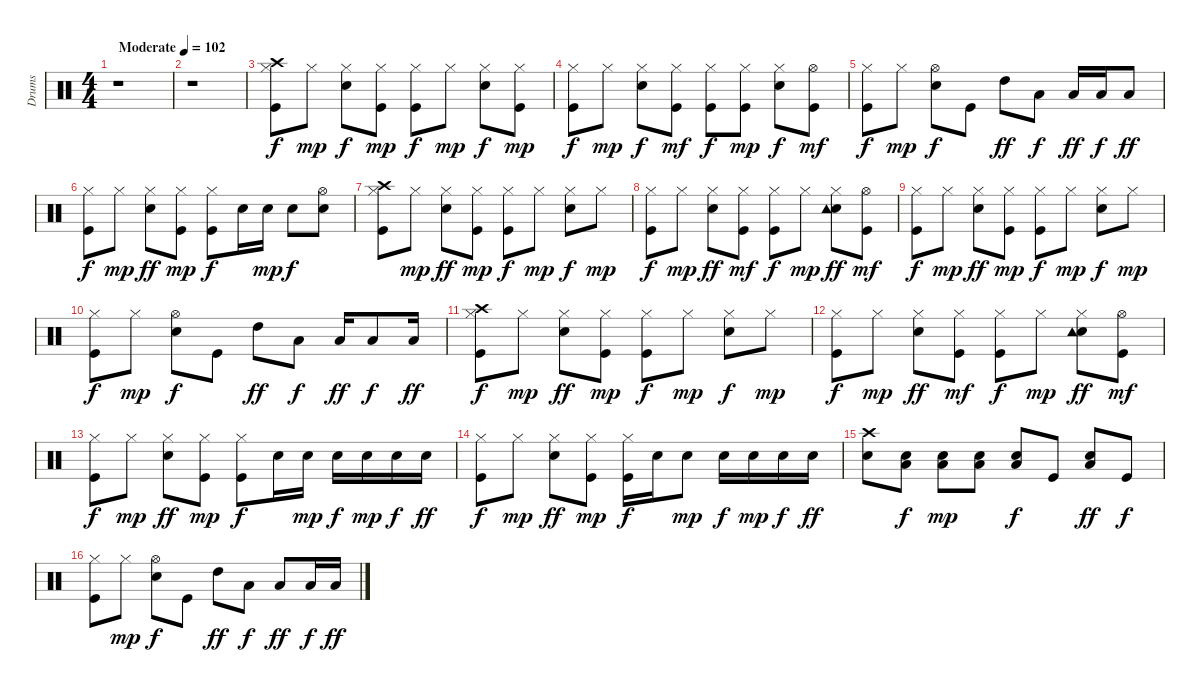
\track ("Drums" "Drums") {instrument percussion}
\staff {score}
\articulation defaults
\ts (4 4)
\tempo (102 "Moderate")
\clef neutral
\ks c
r.1{dy f} |
r.1 |
("Kick (hit)" "Hi-Hat (closed)" "Crash high (hit)").8 "Hi-Hat (closed)".8{dy mp} ("Snare (hit) 2" "Hi-Hat (closed)").8{dy f} ("Kick (hit)" "Hi-Hat (closed)").8{dy mp} ("Kick (hit)" "Hi-Hat (closed)").8{dy f} "Hi-Hat (closed)".8{dy mp} ("Snare (hit) 2" "Hi-Hat (closed)").8{dy f} ("Kick (hit)" "Hi-Hat (closed)").8{dy mp} |
("Kick (hit)" "Hi-Hat (closed)").8{dy f} "Hi-Hat (closed)".8{dy mp} ("Snare (hit) 2" "Hi-Hat (closed)").8{dy f} ("Kick (hit)" "Hi-Hat (closed)").8{dy mf} ("Kick (hit)" "Hi-Hat (closed)").8{dy f} ("Kick (hit)" "Hi-Hat (closed)").8{dy mp} ("Snare (hit) 2" "Hi-Hat (closed)").8{dy f} ("Kick (hit)" "Hi-Hat (open)").8{dy mf} |
("Kick (hit)" "Hi-Hat (closed)").8{dy f} "Hi-Hat (closed)".8{dy mp} ("Snare (hit) 2" "Hi-Hat (open)").8{dy f} "Kick (hit)".8 "High Tom (hit)".8{dy ff} "Low Tom (hit)".8{dy f} "Low Tom (hit)".16{dy ff} "Low Floor Tom (hit)".16{dy f} "Low Floor Tom (hit)".8{dy ff} |
("Kick (hit)" "Hi-Hat (closed)").8{dy f} "Hi-Hat (closed)".8{dy mp} ("Snare (hit) 2" "Hi-Hat (closed)").8{dy ff} ("Kick (hit)" "Hi-Hat (closed)").8{dy mp} ("Kick (hit)" "Hi-Hat (closed)").8{dy f} "Snare (hit) 2".16 "Snare (hit) 2".16{dy mp} "Snare (hit) 2".8{dy f} ("Snare (hit) 2" "Hi-Hat (open)").8 |
("Kick (hit)" "Hi-Hat (closed)" "Crash high (hit)").8 "Hi-Hat (closed)".8{dy mp} ("Snare (hit) 2" "Hi-Hat (closed)").8{dy ff} ("Kick (hit)" "Hi-Hat (closed)").8{dy mp} ("Kick (hit)" "Hi-Hat (closed)").8{dy f} "Hi-Hat (closed)".8{dy mp} ("Snare (hit) 2" "Hi-Hat (closed)").8{dy f} "Hi-Hat (closed)".8{dy mp} |
("Kick (hit)" "Hi-Hat (closed)").8{dy f} "Hi-Hat (closed)".8{dy mp} ("Snare (hit) 2" "Hi-Hat (closed)").8{dy ff} ("Kick (hit)" "Hi-Hat (closed)").8{dy mf} ("Kick (hit)" "Hi-Hat (closed)").8{dy f} "Hi-Hat (closed)".8{dy mp} ("Snare (hit) 2" "Hi-Hat (closed)" "Tambourine (hit)").8{dy ff} ("Kick (hit)" "Hi-Hat (open)").8{dy mf} |
("Kick (hit)" "Hi-Hat (closed)").8{dy f} "Hi-Hat (closed)".8{dy mp} ("Snare (hit) 2" "Hi-Hat (closed)").8{dy ff} ("Kick (hit)" "Hi-Hat (closed)").8{dy mp} ("Kick (hit)" "Hi-Hat (closed)").8{dy f} "Hi-Hat (closed)".8{dy mp} ("Snare (hit) 2" "Hi-Hat (closed)").8{dy f} "Hi-Hat (closed)".8{dy mp} |
("Kick (hit)" "Hi-Hat (closed)").8{dy f} "Hi-Hat (closed)".8{dy mp} ("Snare (hit) 2" "Hi-Hat (open)").8{dy f} "Kick (hit)".8 "High Tom (hit)".8{dy ff} "Low Tom (hit)".8{dy f} "Low Tom (hit)".16{dy ff} "Low Floor Tom (hit)".8{dy f} "Low Floor Tom (hit)".16{dy ff} |
("Kick (hit)" "Hi-Hat (closed)" "Crash high (hit)").8{dy f} "Hi-Hat (closed)".8{dy mp} ("Snare (hit) 2" "Hi-Hat (closed)").8{dy ff} ("Kick (hit)" "Hi-Hat (closed)").8{dy mp} ("Kick (hit)" "Hi-Hat (closed)").8{dy f} "Hi-Hat (closed)".8{dy mp} ("Snare (hit) 2" "Hi-Hat (closed)").8{dy f} "Hi-Hat (closed)".8{dy mp} |
("Kick (hit)" "Hi-Hat (closed)").8{dy f} "Hi-Hat (closed)".8{dy mp} ("Snare (hit) 2" "Hi-Hat (closed)").8{dy ff} ("Kick (hit)" "Hi-Hat (closed)").8{dy mf} ("Kick (hit)" "Hi-Hat (closed)").8{dy f} "Hi-Hat (closed)".8{dy mp} ("Snare (hit) 2" "Hi-Hat (closed)" "Tambourine (hit)").8{dy ff} ("Kick (hit)" "Hi-Hat (open)").8{dy mf} |
("Kick (hit)" "Hi-Hat (closed)").8{dy f} "Hi-Hat (closed)".8{dy mp} ("Snare (hit) 2" "Hi-Hat (closed)").8{dy ff} ("Kick (hit)" "Hi-Hat (closed)").8{dy mp} ("Kick (hit)" "Hi-Hat (closed)").8{dy f} "Snare (hit) 2".16 "Snare (hit) 2".16{dy mp} "Snare (hit) 2".16{dy f} "Snare (hit) 2".16{dy mp} "Snare (hit) 2".16{dy f} "Snare (hit) 2".16{dy ff} |
("Kick (hit)" "Hi-Hat (closed)").8{dy f} "Hi-Hat (closed)".8{dy mp} ("Snare (hit) 2" "Hi-Hat (closed)").8{dy ff} ("Kick (hit)" "Hi-Hat (closed)").8{dy mp} ("Kick (hit)" "Hi-Hat (closed)").16{dy f} "Snare (hit) 2".16 "Snare (hit) 2".8{dy mp} "Snare (hit) 2".16{dy f} "Snare (hit) 2".16{dy mp} "Snare (hit) 2".16{dy f} "Snare (hit) 2".16{dy ff} |
("Snare (hit) 2" "Crash high (hit)").8 ("Snare (hit) 2" "Low Floor Tom (hit)").8{dy f} ("Snare (hit) 2" "Low Floor Tom (hit)").8{dy mp} ("Snare (hit) 2" "Low Floor Tom (hit)").8 ("Snare (hit) 2" "Low Floor Tom (hit)").8{dy f} "Kick (hit)".8 ("Snare (hit) 2" "Low Floor Tom (hit)").8{dy ff} "Kick (hit)".8{dy f} |
("Kick (hit)" "Hi-Hat (closed)").8 "Hi-Hat (closed)".8{dy mp} ("Snare (hit) 2" "Hi-Hat (open)").8{dy f} "Kick (hit)".8 "High Tom (hit)".8{dy ff} "Low Tom (hit)".8{dy f} "Low Tom (hit)".8{dy ff} "Low Floor Tom (hit)".16{dy f} "Low Floor Tom (hit)".16{dy ff}
